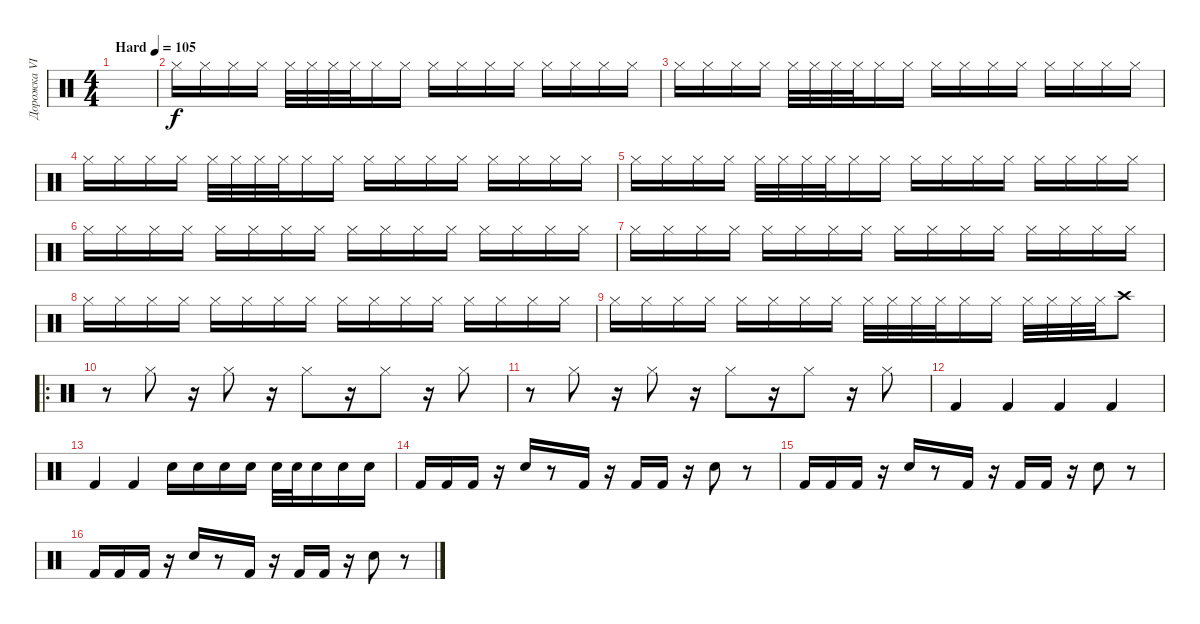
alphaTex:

\track ("Дорожка VI" "Дорожка VI") {instrument percussion}
\staff {score}
\articulation defaults
\ts (4 4)
\tempo (105 "Hard")
\clef neutral
\ks c
|
"Hi-Hat (closed)".16 "Hi-Hat (closed)".16 "Hi-Hat (closed)".16 "Hi-Hat (closed)".16 "Hi-Hat (closed)".32 "Hi-Hat (closed)".32 "Hi-Hat (closed)".32 "Hi-Hat (closed)".32 "Hi-Hat (closed)".16 "Hi-Hat (closed)".16 "Hi-Hat (closed)".16 "Hi-Hat (closed)".16 "Hi-Hat (closed)".16 "Hi-Hat (closed)".16 "Hi-Hat (closed)".16 "Hi-Hat (closed)".16 "Hi-Hat (closed)".16 "Hi-Hat (closed)".16 |
"Hi-Hat (closed)".16 "Hi-Hat (closed)".16 "Hi-Hat (closed)".16 "Hi-Hat (closed)".16 "Hi-Hat (closed)".32 "Hi-Hat (closed)".32 "Hi-Hat (closed)".32 "Hi-Hat (closed)".32 "Hi-Hat (closed)".16 "Hi-Hat (closed)".16 "Hi-Hat (closed)".16 "Hi-Hat (closed)".16 "Hi-Hat (closed)".16 "Hi-Hat (closed)".16 "Hi-Hat (closed)".16 "Hi-Hat (closed)".16 "Hi-Hat (closed)".16 "Hi-Hat (closed)".16 |
"Hi-Hat (closed)".16 "Hi-Hat (closed)".16 "Hi-Hat (closed)".16 "Hi-Hat (closed)".16 "Hi-Hat (closed)".32 "Hi-Hat (closed)".32 "Hi-Hat (closed)".32 "Hi-Hat (closed)".32 "Hi-Hat (closed)".16 "Hi-Hat (closed)".16 "Hi-Hat (closed)".16 "Hi-Hat (closed)".16 "Hi-Hat (closed)".16 "Hi-Hat (closed)".16 "Hi-Hat (closed)".16 "Hi-Hat (closed)".16 "Hi-Hat (closed)".16 "Hi-Hat (closed)".16 |
"Hi-Hat (closed)".16 "Hi-Hat (closed)".16 "Hi-Hat (closed)".16 "Hi-Hat (closed)".16 "Hi-Hat (closed)".32 "Hi-Hat (closed)".32 "Hi-Hat (closed)".32 "Hi-Hat (closed)".32 "Hi-Hat (closed)".16 "Hi-Hat (closed)".16 "Hi-Hat (closed)".16 "Hi-Hat (closed)".16 "Hi-Hat (closed)".16 "Hi-Hat (closed)".16 "Hi-Hat (closed)".16 "Hi-Hat (closed)".16 "Hi-Hat (closed)".16 "Hi-Hat (closed)".16 |
"Hi-Hat (closed)".16 "Hi-Hat (closed)".16 "Hi-Hat (closed)".16 "Hi-Hat (closed)".16 "Hi-Hat (closed)".16 "Hi-Hat (closed)".16 "Hi-Hat (closed)".16 "Hi-Hat (closed)".16 "Hi-Hat (closed)".16 "Hi-Hat (closed)".16 "Hi-Hat (closed)".16 "Hi-Hat (closed)".16 "Hi-Hat (closed)".16 "Hi-Hat (closed)".16 "Hi-Hat (closed)".16 "Hi-Hat (closed)".16 |
"Hi-Hat (closed)".16 "Hi-Hat (closed)".16 "Hi-Hat (closed)".16 "Hi-Hat (closed)".16 "Hi-Hat (closed)".16 "Hi-Hat (closed)".16 "Hi-Hat (closed)".16 "Hi-Hat (closed)".16 "Hi-Hat (closed)".16 "Hi-Hat (closed)".16 "Hi-Hat (closed)".16 "Hi-Hat (closed)".16 "Hi-Hat (closed)".16 "Hi-Hat (closed)".16 "Hi-Hat (closed)".16 "Hi-Hat (closed)".16 |
"Hi-Hat (closed)".16 "Hi-Hat (closed)".16 "Hi-Hat (closed)".16 "Hi-Hat (closed)".16 "Hi-Hat (closed)".16 "Hi-Hat (closed)".16 "Hi-Hat (closed)".16 "Hi-Hat (closed)".16 "Hi-Hat (closed)".16 "Hi-Hat (closed)".16 "Hi-Hat (closed)".16 "Hi-Hat (closed)".16 "Hi-Hat (closed)".16 "Hi-Hat (closed)".16 "Hi-Hat (closed)".16 "Hi-Hat (closed)".16 |
"Hi-Hat (closed)".16 "Hi-Hat (closed)".16 "Hi-Hat (closed)".16 "Hi-Hat (closed)".16 "Hi-Hat (closed)".16 "Hi-Hat (closed)".16 "Hi-Hat (closed)".16 "Hi-Hat (closed)".16 "Hi-Hat (closed)".32 "Hi-Hat (closed)".32 "Hi-Hat (closed)".32 "Hi-Hat (closed)".32 "Hi-Hat (closed)".16 "Hi-Hat (closed)".16 "Hi-Hat (closed)".32 "Hi-Hat (closed)".32 "Hi-Hat (closed)".32 "Hi-Hat (closed)".32 "Crash high (hit)".8 |
\ro
r.8 "Hi-Hat (closed)".8 r.16 "Hi-Hat (closed)".8 r.16 "Hi-Hat (closed)".8 r.16 "Hi-Hat (closed)".8 r.16 "Hi-Hat (closed)".8 |
r.8 "Hi-Hat (closed)".8 r.16 "Hi-Hat (closed)".8 r.16 "Hi-Hat (closed)".8 r.16 "Hi-Hat (closed)".8 r.16 "Hi-Hat (closed)".8 |
"Kick (hit) 2".4 "Kick (hit) 2".4 "Kick (hit) 2".4 "Kick (hit) 2".4 |
"Kick (hit) 2".4 "Kick (hit) 2".4 "Electric Snare (hit)".16 "Electric Snare (hit)".16 "Electric Snare (hit)".16 "Electric Snare (hit)".16 "Electric Snare (hit)".32 "Electric Snare (hit)".32 "Electric Snare (hit)".16 "Electric Snare (hit)".16 "Electric Snare (hit)".16 |
"Kick (hit) 2".16 "Kick (hit) 2".16 "Kick (hit) 2".16 r.16 "Electric Snare (hit)".16 r.8 "Kick (hit) 2".16 r.16 "Kick (hit) 2".16 "Kick (hit) 2".16 r.16 "Electric Snare (hit)".8 r.8 |
"Kick (hit) 2".16 "Kick (hit) 2".16 "Kick (hit) 2".16 r.16 "Electric Snare (hit)".16 r.8 "Kick (hit) 2".16 r.16 "Kick (hit) 2".16 "Kick (hit) 2".16 r.16 "Electric Snare (hit)".8 r.8 |
"Kick (hit) 2".16 "Kick (hit) 2".16 "Kick (hit) 2".16 r.16 "Electric Snare (hit)".16 r.8 "Kick (hit) 2".16 r.16 "Kick (hit) 2".16 "Kick (hit) 2".16 r.16 "Electric Snare (hit)".8 r.8
